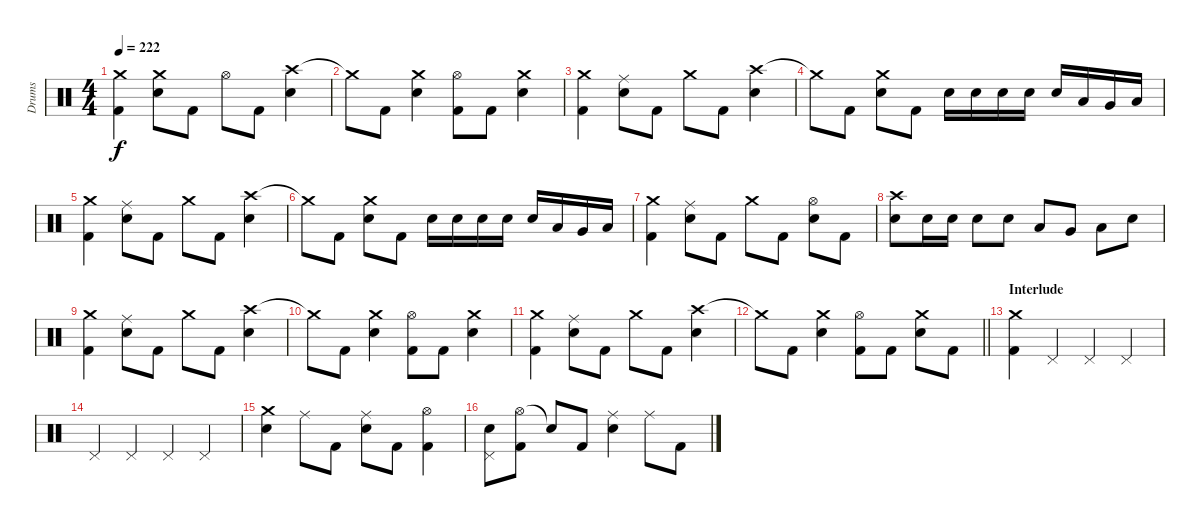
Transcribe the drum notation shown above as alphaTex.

\track ("Drums" "Drums") {instrument percussion}
\staff {score}
\articulation defaults
\ts (4 4)
\tempo 222
\clef neutral
\ks c
("Crash medium (hit)" "Kick (hit) 2").4{dy f} ("Crash medium (hit)" "Electric Snare (hit)").8 "Kick (hit) 2".8 "Hi-Hat (open)".8 "Kick (hit) 2".8 ("Crash high (hit)" "Electric Snare (hit)").4 |
"Crash medium (hit)"{t}.8 "Kick (hit) 2".8 ("Crash medium (hit)" "Electric Snare (hit)").4 ("Hi-Hat (open)" "Kick (hit) 2").8 "Kick (hit) 2".8 ("Crash medium (hit)" "Electric Snare (hit)").4 |
("Crash medium (hit)" "Kick (hit) 2").4 ("Ride (middle)" "Electric Snare (hit)").8 "Kick (hit) 2".8 "Crash medium (hit)".8 "Kick (hit) 2".8 ("Crash high (hit)" "Electric Snare (hit)").4 |
"Crash medium (hit)"{t}.8 "Kick (hit) 2".8 ("Crash medium (hit)" "Electric Snare (hit)").8 "Kick (hit) 2".8 "Electric Snare (hit)".16 "Electric Snare (hit)".16 "Electric Snare (hit)".16 "Electric Snare (hit)".16 "Electric Snare (hit)".16 "Low Tom (hit)".16 "Very Low Tom (hit)".16 "Low Floor Tom (hit)".16 |
("Crash medium (hit)" "Kick (hit) 2").4 ("Ride (middle)" "Electric Snare (hit)").8 "Kick (hit) 2".8 "Crash medium (hit)".8 "Kick (hit) 2".8 ("Crash high (hit)" "Electric Snare (hit)").4 |
"Crash medium (hit)"{t}.8 "Kick (hit) 2".8 ("Crash medium (hit)" "Electric Snare (hit)").8 "Kick (hit) 2".8 "Electric Snare (hit)".16 "Electric Snare (hit)".16 "Electric Snare (hit)".16 "Electric Snare (hit)".16 "Electric Snare (hit)".16 "Low Tom (hit)".16 "Very Low Tom (hit)".16 "Low Floor Tom (hit)".16 |
("Crash medium (hit)" "Kick (hit) 2").4 ("Ride (middle)" "Electric Snare (hit)").8 "Kick (hit) 2".8 "Crash medium (hit)".8 "Kick (hit) 2".8 ("Hi-Hat (open)" "Electric Snare (hit)").8 "Kick (hit) 2".8 |
("Crash high (hit)" "Electric Snare (hit)").8 "Electric Snare (hit)".16 "Electric Snare (hit)".16 "Electric Snare (hit)".8 "Electric Snare (hit)".8 "Low Tom (hit)".8 "Very Low Tom (hit)".8 "Low Floor Tom (hit)".8 "Electric Snare (hit)".8 |
("Crash medium (hit)" "Kick (hit) 2").4 ("Ride (middle)" "Electric Snare (hit)").8 "Kick (hit) 2".8 "Crash medium (hit)".8 "Kick (hit) 2".8 ("Crash high (hit)" "Electric Snare (hit)").4 |
"Crash medium (hit)"{t}.8 "Kick (hit) 2".8 ("Crash medium (hit)" "Electric Snare (hit)").4 ("Hi-Hat (open)" "Kick (hit) 2").8 "Kick (hit) 2".8 ("Crash medium (hit)" "Electric Snare (hit)").4 |
("Crash medium (hit)" "Kick (hit) 2").4 ("Ride (middle)" "Electric Snare (hit)").8 "Kick (hit) 2".8 "Crash medium (hit)".8 "Kick (hit) 2".8 ("Crash high (hit)" "Electric Snare (hit)").4 |
\barLineRight lightlight "Crash medium (hit)"{t}.8 "Kick (hit) 2".8
("Crash medium (hit)" "Electric Snare (hit)").4 ("Hi-Hat (open)" "Kick (hit) 2").8 "Kick (hit) 2".8 ("Crash medium (hit)" "Electric Snare (hit)").8 "Kick (hit) 2".8 |
\section ("" "Interlude")
("Crash medium (hit)" "Kick (hit) 2").4 "Pedal Hi-Hat (hit)".4 "Pedal Hi-Hat (hit)".4 "Pedal Hi-Hat (hit)".4 |
"Pedal Hi-Hat (hit)".4 "Pedal Hi-Hat (hit)".4 "Pedal Hi-Hat (hit)".4 "Pedal Hi-Hat (hit)".4 |
("Crash medium (hit)" "Electric Snare (hit)").4 "Ride (middle)".8 "Kick (hit) 2".8 ("Ride (middle)" "Electric Snare (hit)").8 "Kick (hit) 2".8 ("Hi-Hat (open)" "Kick (hit) 2").4 |
("Pedal Hi-Hat (hit)" "Electric Snare (hit)").8 ("Hi-Hat (open)" "Kick (hit) 2").8 "Snare (hit)"{t}.8 "Kick (hit) 2".8 ("Ride (middle)" "Electric Snare (hit)").4 "Ride (middle)".8 "Kick (hit) 2".8
